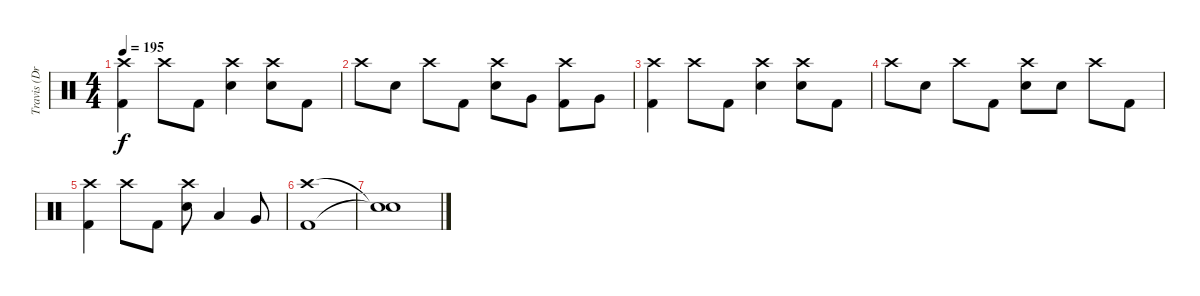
\track ("Travis (Drums)" "Travis (Dr") {instrument percussion}
\staff {score}
\articulation defaults
\ts (4 4)
\tempo 195
\clef neutral
\ks c
("Crash high (hit)" "Kick (hit) 2").4{dy f} "Crash high (hit)".8 "Kick (hit) 2".8 ("Crash high (hit)" "Electric Snare (hit)").4 ("Crash high (hit)" "Electric Snare (hit)").8 "Kick (hit) 2".8 |
"Crash high (hit)".8 "Electric Snare (hit)".8 "Crash high (hit)".8 "Kick (hit) 2".8 ("Crash high (hit)" "Electric Snare (hit)").8 "Very Low Tom (hit)".8 ("Crash high (hit)" "Kick (hit) 2").8 "Very Low Tom (hit)".8 |
("Crash high (hit)" "Kick (hit) 2").4 "Crash high (hit)".8 "Kick (hit) 2".8 ("Crash high (hit)" "Electric Snare (hit)").4 ("Crash high (hit)" "Electric Snare (hit)").8 "Kick (hit) 2".8 |
"Crash high (hit)".8 "Electric Snare (hit)".8 "Crash high (hit)".8 "Kick (hit) 2".8 ("Crash high (hit)" "Electric Snare (hit)").8 "Electric Snare (hit)".8 "Crash high (hit)".8 "Kick (hit) 2".8 |
("Crash high (hit)" "Kick (hit) 2").4 "Crash high (hit)".8 "Kick (hit) 2".8 ("Crash high (hit)" "Electric Snare (hit)").8 "Low Tom (hit)".4 "Very Low Tom (hit)".8 |
("Crash high (hit)" "Kick (hit) 2").1 |
("Snare (hit)"{t} "Snare (hit)"{t}).1
